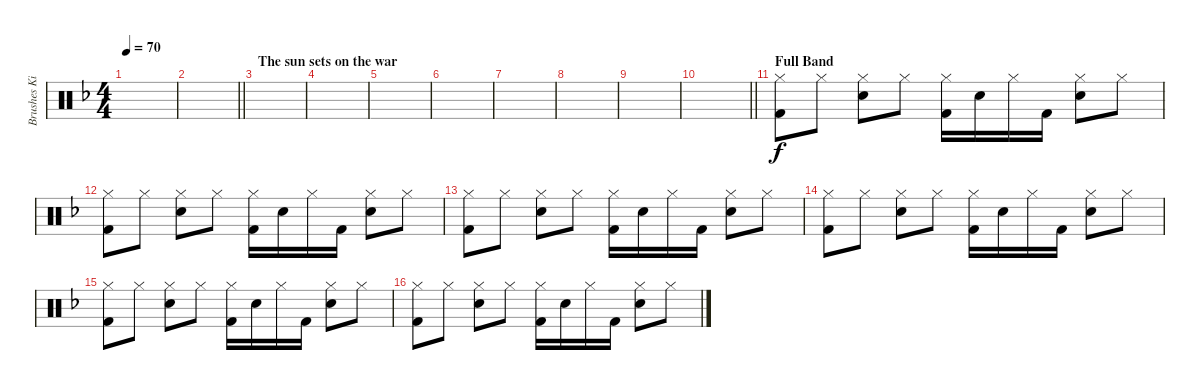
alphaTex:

\track ("Brushes Kit" "Brushes Ki") {instrument percussion}
\staff {score}
\articulation defaults
\ts (4 4)
\tempo 70
\clef neutral
\ks f
|
\barLineRight lightlight
|
\section ("" "The sun sets on the war")
|
|
|
|
|
|
|
\barLineRight lightlight
|
\section ("" "Full Band")
("Hi-Hat (closed)" "Kick (hit) 2").8 "Hi-Hat (closed)".8 ("Hi-Hat (closed)" "Electric Snare (hit)").8 "Hi-Hat (closed)".8 ("Hi-Hat (closed)" "Kick (hit) 2").16 "Electric Snare (hit)".16 "Hi-Hat (closed)".16 "Kick (hit) 2".16 ("Hi-Hat (closed)" "Electric Snare (hit)").8 "Hi-Hat (closed)".8 |
("Hi-Hat (closed)" "Kick (hit) 2").8 "Hi-Hat (closed)".8 ("Hi-Hat (closed)" "Electric Snare (hit)").8 "Hi-Hat (closed)".8 ("Hi-Hat (closed)" "Kick (hit) 2").16 "Electric Snare (hit)".16 "Hi-Hat (closed)".16 "Kick (hit) 2".16 ("Hi-Hat (closed)" "Electric Snare (hit)").8 "Hi-Hat (closed)".8 |
("Hi-Hat (closed)" "Kick (hit) 2").8 "Hi-Hat (closed)".8 ("Hi-Hat (closed)" "Electric Snare (hit)").8 "Hi-Hat (closed)".8 ("Hi-Hat (closed)" "Kick (hit) 2").16 "Electric Snare (hit)".16 "Hi-Hat (closed)".16 "Kick (hit) 2".16 ("Hi-Hat (closed)" "Electric Snare (hit)").8 "Hi-Hat (closed)".8 |
("Hi-Hat (closed)" "Kick (hit) 2").8 "Hi-Hat (closed)".8 ("Hi-Hat (closed)" "Electric Snare (hit)").8 "Hi-Hat (closed)".8 ("Hi-Hat (closed)" "Kick (hit) 2").16 "Electric Snare (hit)".16 "Hi-Hat (closed)".16 "Kick (hit) 2".16 ("Hi-Hat (closed)" "Electric Snare (hit)").8 "Hi-Hat (closed)".8 |
("Hi-Hat (closed)" "Kick (hit) 2").8 "Hi-Hat (closed)".8 ("Hi-Hat (closed)" "Electric Snare (hit)").8 "Hi-Hat (closed)".8 ("Hi-Hat (closed)" "Kick (hit) 2").16 "Electric Snare (hit)".16 "Hi-Hat (closed)".16 "Kick (hit) 2".16 ("Hi-Hat (closed)" "Electric Snare (hit)").8 "Hi-Hat (closed)".8 |
("Hi-Hat (closed)" "Kick (hit) 2").8 "Hi-Hat (closed)".8 ("Hi-Hat (closed)" "Electric Snare (hit)").8 "Hi-Hat (closed)".8 ("Hi-Hat (closed)" "Kick (hit) 2").16 "Electric Snare (hit)".16 "Hi-Hat (closed)".16 "Kick (hit) 2".16 ("Hi-Hat (closed)" "Electric Snare (hit)").8 "Hi-Hat (closed)".8
